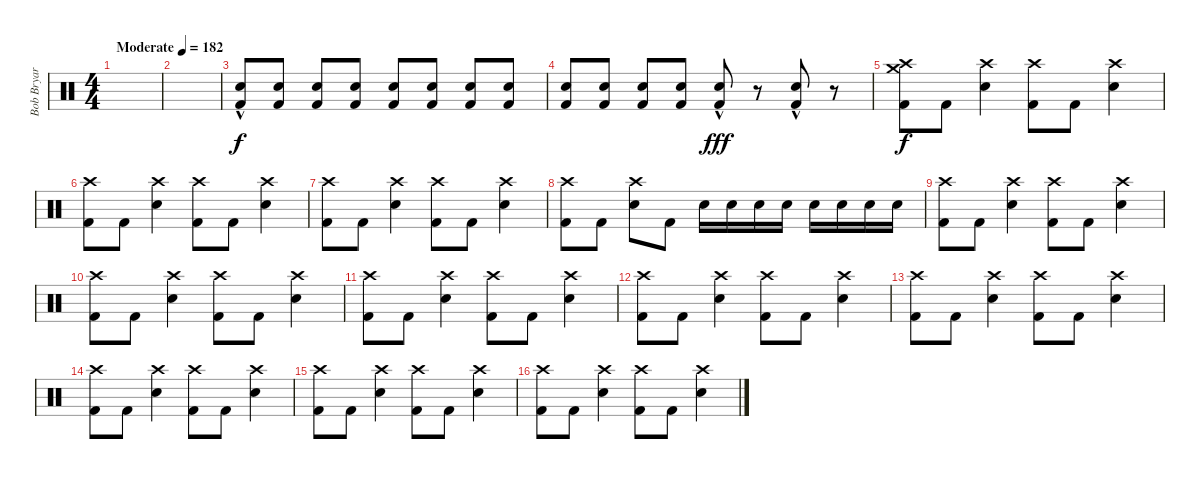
\track ("Bob Bryar" "Bob Bryar") {instrument percussion}
\staff {score}
\articulation defaults
\ts (4 4)
\tempo (182 "Moderate")
\clef neutral
\ks c
|
|
("Snare (hit) 2"{hac} "Kick (hit) 2"{hac}).8{volume 14} ("Snare (hit) 2" "Kick (hit) 2").8{dy f} ("Snare (hit) 2" "Kick (hit) 2").8 ("Snare (hit) 2" "Kick (hit) 2").8 ("Snare (hit) 2" "Kick (hit) 2").8 ("Snare (hit) 2" "Kick (hit) 2").8 ("Snare (hit) 2" "Kick (hit) 2").8 ("Snare (hit) 2" "Kick (hit) 2").8 |
("Snare (hit) 2" "Kick (hit) 2").8 ("Snare (hit) 2" "Kick (hit) 2").8 ("Snare (hit) 2" "Kick (hit) 2").8 ("Snare (hit) 2" "Kick (hit) 2").8 ("Snare (hit) 2"{hac} "Kick (hit) 2"{hac}).8{dy fff} r.8 ("Snare (hit) 2"{hac} "Kick (hit) 2"{hac}).8 r.8 |
("Kick (hit) 2" "Crash high (hit)" "Crash medium (hit)").8{dy f} "Kick (hit) 2".8 ("Snare (hit) 2" "Crash high (hit)").4 ("Kick (hit) 2" "Crash high (hit)").8 "Kick (hit) 2".8 ("Snare (hit) 2" "Crash high (hit)").4 |
("Kick (hit) 2" "Crash high (hit)").8 "Kick (hit) 2".8 ("Snare (hit) 2" "Crash high (hit)").4 ("Kick (hit) 2" "Crash high (hit)").8 "Kick (hit) 2".8 ("Snare (hit) 2" "Crash high (hit)").4 |
("Kick (hit) 2" "Crash high (hit)").8 "Kick (hit) 2".8 ("Snare (hit) 2" "Crash high (hit)").4 ("Kick (hit) 2" "Crash high (hit)").8 "Kick (hit) 2".8 ("Snare (hit) 2" "Crash high (hit)").4 |
("Kick (hit) 2" "Crash high (hit)").8 "Kick (hit) 2".8 ("Snare (hit) 2" "Crash high (hit)").8 "Kick (hit) 2".8 "Snare (hit) 2".16 "Snare (hit) 2".16 "Snare (hit) 2".16 "Snare (hit) 2".16 "Snare (hit) 2".16 "Snare (hit) 2".16 "Snare (hit) 2".16 "Snare (hit) 2".16 |
("Kick (hit) 2" "Crash high (hit)").8 "Kick (hit) 2".8 ("Snare (hit) 2" "Crash high (hit)").4 ("Kick (hit) 2" "Crash high (hit)").8 "Kick (hit) 2".8 ("Snare (hit) 2" "Crash high (hit)").4 |
("Kick (hit) 2" "Crash high (hit)").8 "Kick (hit) 2".8 ("Snare (hit) 2" "Crash high (hit)").4 ("Kick (hit) 2" "Crash high (hit)").8 "Kick (hit) 2".8 ("Snare (hit) 2" "Crash high (hit)").4 |
("Kick (hit) 2" "Crash high (hit)").8 "Kick (hit) 2".8 ("Snare (hit) 2" "Crash high (hit)").4 ("Kick (hit) 2" "Crash high (hit)").8 "Kick (hit) 2".8 ("Snare (hit) 2" "Crash high (hit)").4 |
("Kick (hit) 2" "Crash high (hit)").8 "Kick (hit) 2".8 ("Snare (hit) 2" "Crash high (hit)").4 ("Kick (hit) 2" "Crash high (hit)").8 "Kick (hit) 2".8 ("Snare (hit) 2" "Crash high (hit)").4 |
("Kick (hit) 2" "Crash high (hit)").8 "Kick (hit) 2".8 ("Snare (hit) 2" "Crash high (hit)").4 ("Kick (hit) 2" "Crash high (hit)").8 "Kick (hit) 2".8 ("Snare (hit) 2" "Crash high (hit)").4 |
("Kick (hit) 2" "Crash high (hit)").8 "Kick (hit) 2".8 ("Snare (hit) 2" "Crash high (hit)").4 ("Kick (hit) 2" "Crash high (hit)").8 "Kick (hit) 2".8 ("Snare (hit) 2" "Crash high (hit)").4 |
("Kick (hit) 2" "Crash high (hit)").8 "Kick (hit) 2".8 ("Snare (hit) 2" "Crash high (hit)").4 ("Kick (hit) 2" "Crash high (hit)").8 "Kick (hit) 2".8 ("Snare (hit) 2" "Crash high (hit)").4 |
("Kick (hit) 2" "Crash high (hit)").8 "Kick (hit) 2".8 ("Snare (hit) 2" "Crash high (hit)").4 ("Kick (hit) 2" "Crash high (hit)").8 "Kick (hit) 2".8 ("Snare (hit) 2" "Crash high (hit)").4
